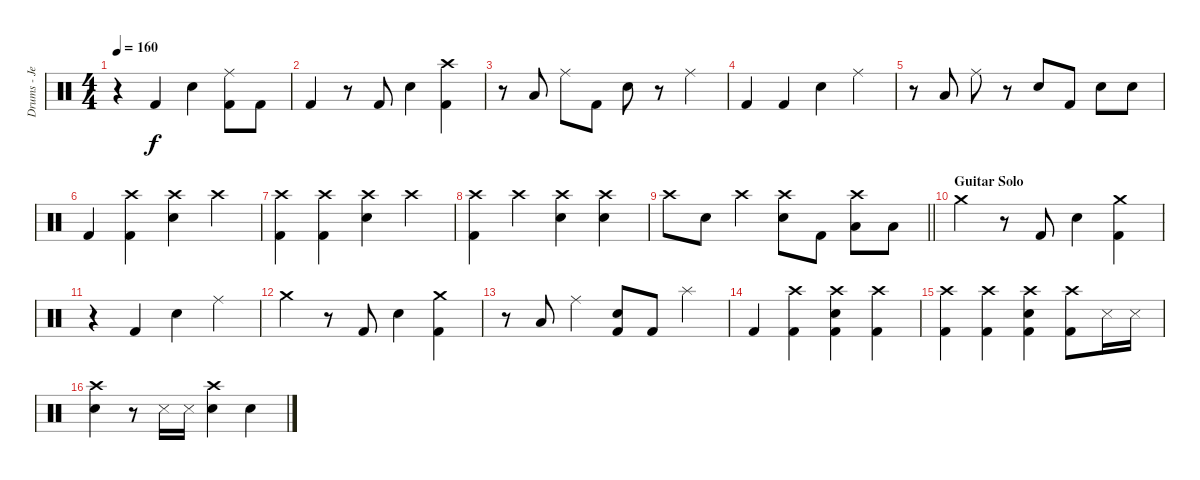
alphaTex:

\track ("Drums - Jen Ledger" "Drums - Je") {instrument percussion}
\staff {score}
\articulation defaults
\ts (4 4)
\tempo 160
\clef neutral
\ks c
r.4{dy f} "Kick (hit) 2".4 "Snare (hit) 2".4 ("Kick (hit) 2" "Ride (middle)").8 "Kick (hit) 2".8 |
"Kick (hit) 2".4 r.8 "Kick (hit) 2".8 "Snare (hit) 2".4 ("Kick (hit) 2" "Crash high (hit)").4 |
r.8 "Low Tom (hit)".8 "Ride (middle)".8 "Kick (hit) 2".8 "Snare (hit) 2".8 r.8 "Ride (middle)".4 |
"Kick (hit) 2".4 "Kick (hit) 2".4 "Snare (hit) 2".4 "Ride (middle)".4 |
r.8 "Low Tom (hit)".8 "Ride (middle)".8 r.8 "Snare (hit) 2".8 "Kick (hit) 2".8 "Snare (hit) 2".8 "Snare (hit) 2".8 |
"Kick (hit) 2".4 ("Kick (hit) 2" "Crash high (hit)").4 ("Crash high (hit)" "Snare (hit) 2").4 "Crash high (hit)".4 |
("Kick (hit) 2" "Crash high (hit)").4 ("Kick (hit) 2" "Crash high (hit)").4 ("Crash high (hit)" "Snare (hit) 2").4 "Crash high (hit)".4 |
("Kick (hit) 2" "Crash high (hit)").4 "Crash high (hit)".4 ("Crash high (hit)" "Snare (hit) 2").4 ("Crash high (hit)" "Snare (hit) 2").4 |
\barLineRight lightlight "Crash high (hit)".8 "Snare (hit) 2".8 "Crash high (hit)".4
("Crash high (hit)" "Snare (hit) 2").8 "Kick (hit) 2".8 ("Low Floor Tom (hit)" "Crash high (hit)").8 "Low Floor Tom (hit)".8 |
\section ("" "Guitar Solo")
"Crash medium (hit)".4 r.8 "Kick (hit) 2".8 "Snare (hit) 2".4 ("Kick (hit) 2" "Crash medium (hit)").4 |
r.4 "Kick (hit) 2".4 "Snare (hit) 2".4 "Ride (middle)".4 |
"Crash medium (hit)".4 r.8 "Kick (hit) 2".8 "Snare (hit) 2".4 ("Kick (hit) 2" "Crash medium (hit)").4 |
r.8 "Low Tom (hit)".8 "Ride (middle)".4 ("Kick (hit) 2" "Snare (hit) 2").8 "Kick (hit) 2".8 "Splash (hit)".4 |
"Kick (hit) 2".4 ("Kick (hit) 2" "Crash high (hit)").4 ("Kick (hit) 2" "Crash high (hit)" "Snare (hit) 2").4 ("Kick (hit) 2" "Crash high (hit)").4 |
("Kick (hit) 2" "Crash high (hit)").4 ("Kick (hit) 2" "Crash high (hit)").4 ("Kick (hit) 2" "Crash high (hit)" "Snare (hit) 2").4 ("Kick (hit) 2" "Crash high (hit)").8 "Snare (side stick) 3".16 "Snare (side stick) 3".16 |
("Crash high (hit)" "Snare (hit) 2").4 r.8 "Snare (side stick) 3".16 "Snare (side stick) 3".16 ("Crash high (hit)" "Snare (hit) 2").4 "Snare (hit) 2".4
